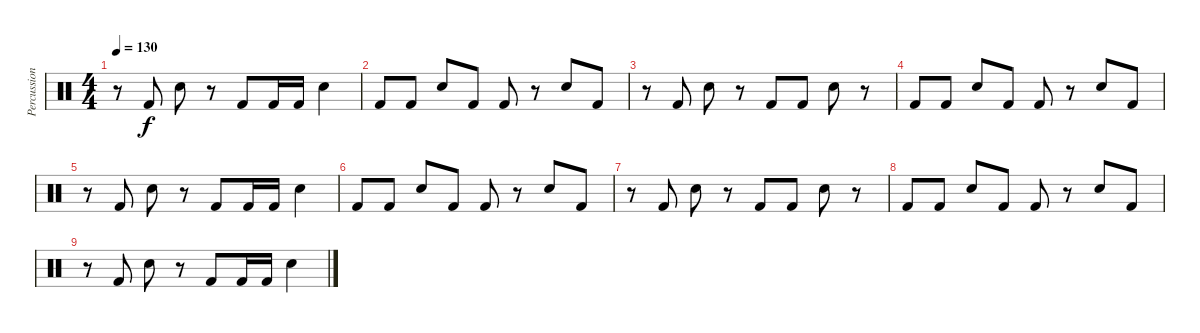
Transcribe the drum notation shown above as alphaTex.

\track ("Percussion" "Percussion") {instrument percussion}
\staff {score}
\articulation defaults
\ts (4 4)
\tempo 130
\clef neutral
\ks c
r.8{dy f} "Kick (hit) 2".8 "Electric Snare (hit)".8 r.8 "Kick (hit) 2".8 "Kick (hit) 2".16 "Kick (hit) 2".16 "Electric Snare (hit)".4 |
"Kick (hit) 2".8 "Kick (hit) 2".8 "Electric Snare (hit)".8 "Kick (hit) 2".8 "Kick (hit) 2".8 r.8 "Electric Snare (hit)".8 "Kick (hit) 2".8 |
r.8 "Kick (hit) 2".8 "Electric Snare (hit)".8 r.8 "Kick (hit) 2".8 "Kick (hit) 2".8 "Electric Snare (hit)".8 r.8 |
"Kick (hit) 2".8 "Kick (hit) 2".8 "Electric Snare (hit)".8 "Kick (hit) 2".8 "Kick (hit) 2".8 r.8 "Electric Snare (hit)".8 "Kick (hit) 2".8 |
r.8 "Kick (hit) 2".8 "Electric Snare (hit)".8 r.8 "Kick (hit) 2".8 "Kick (hit) 2".16 "Kick (hit) 2".16 "Electric Snare (hit)".4 |
"Kick (hit) 2".8 "Kick (hit) 2".8 "Electric Snare (hit)".8 "Kick (hit) 2".8 "Kick (hit) 2".8 r.8 "Electric Snare (hit)".8 "Kick (hit) 2".8 |
r.8 "Kick (hit) 2".8 "Electric Snare (hit)".8 r.8 "Kick (hit) 2".8 "Kick (hit) 2".8 "Electric Snare (hit)".8 r.8 |
"Kick (hit) 2".8 "Kick (hit) 2".8 "Electric Snare (hit)".8 "Kick (hit) 2".8 "Kick (hit) 2".8 r.8 "Electric Snare (hit)".8 "Kick (hit) 2".8 |
r.8 "Kick (hit) 2".8 "Electric Snare (hit)".8 r.8 "Kick (hit) 2".8 "Kick (hit) 2".16 "Kick (hit) 2".16 "Electric Snare (hit)".4
